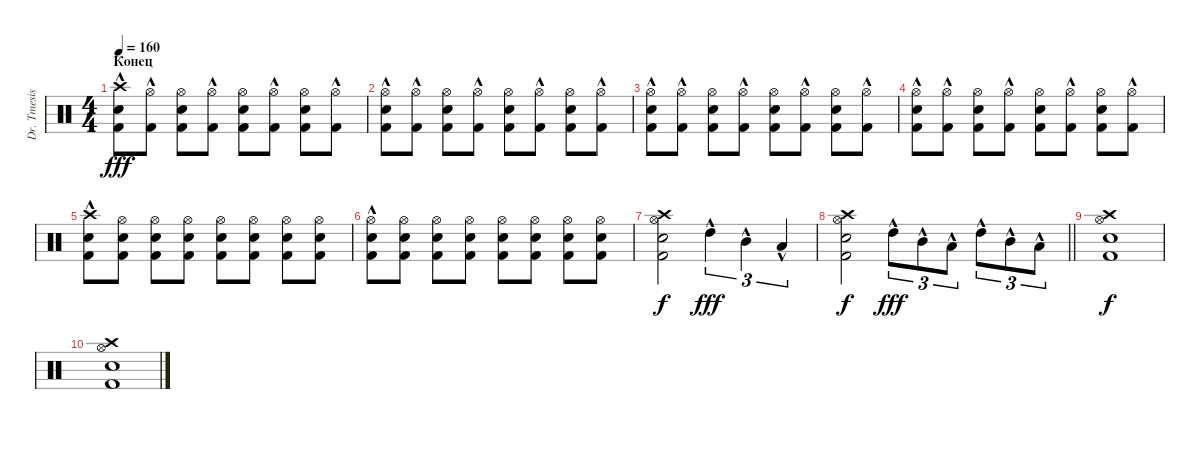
\track ("Dr. Tmesis" "Dr. Tmesis") {instrument percussion}
\staff {score}
\articulation defaults
\ts (4 4)
\section ("" "Конец")
\tempo 160
\clef neutral
\ks c
("Kick (hit) 2"{hac} "Snare (hit) 2" "Crash high (hit)").8{dy fff} ("Kick (hit) 2"{hac} "Hi-Hat (open)").8 ("Snare (hit) 2" "Hi-Hat (open)" "Kick (hit) 2").8 ("Kick (hit) 2"{hac} "Hi-Hat (open)").8 ("Snare (hit) 2" "Hi-Hat (open)" "Kick (hit) 2").8 ("Kick (hit) 2"{hac} "Hi-Hat (open)").8 ("Snare (hit) 2" "Hi-Hat (open)" "Kick (hit) 2").8 ("Kick (hit) 2"{hac} "Hi-Hat (open)").8 |
("Kick (hit) 2"{hac} "Snare (hit) 2" "Hi-Hat (open)").8 ("Kick (hit) 2"{hac} "Hi-Hat (open)").8 ("Snare (hit) 2" "Hi-Hat (open)" "Kick (hit) 2").8 ("Kick (hit) 2"{hac} "Hi-Hat (open)").8 ("Snare (hit) 2" "Hi-Hat (open)" "Kick (hit) 2").8 ("Kick (hit) 2"{hac} "Hi-Hat (open)").8 ("Snare (hit) 2" "Hi-Hat (open)" "Kick (hit) 2").8 ("Kick (hit) 2"{hac} "Hi-Hat (open)").8 |
("Kick (hit) 2"{hac} "Snare (hit) 2" "Hi-Hat (open)").8 ("Kick (hit) 2"{hac} "Hi-Hat (open)").8 ("Snare (hit) 2" "Hi-Hat (open)" "Kick (hit) 2").8 ("Kick (hit) 2"{hac} "Hi-Hat (open)").8 ("Snare (hit) 2" "Hi-Hat (open)" "Kick (hit) 2").8 ("Kick (hit) 2"{hac} "Hi-Hat (open)").8 ("Snare (hit) 2" "Hi-Hat (open)" "Kick (hit) 2").8 ("Kick (hit) 2"{hac} "Hi-Hat (open)").8 |
("Kick (hit) 2"{hac} "Snare (hit) 2" "Hi-Hat (open)").8 ("Kick (hit) 2"{hac} "Hi-Hat (open)").8 ("Snare (hit) 2" "Hi-Hat (open)" "Kick (hit) 2").8 ("Kick (hit) 2"{hac} "Hi-Hat (open)").8 ("Snare (hit) 2" "Hi-Hat (open)" "Kick (hit) 2").8 ("Kick (hit) 2"{hac} "Hi-Hat (open)").8 ("Snare (hit) 2" "Hi-Hat (open)" "Kick (hit) 2").8 ("Kick (hit) 2"{hac} "Hi-Hat (open)").8 |
("Kick (hit) 2"{hac} "Snare (hit) 2" "Crash high (hit)").8 ("Snare (hit) 2" "Hi-Hat (open)" "Kick (hit) 2").8 ("Snare (hit) 2" "Hi-Hat (open)" "Kick (hit) 2").8 ("Snare (hit) 2" "Hi-Hat (open)" "Kick (hit) 2").8 ("Snare (hit) 2" "Hi-Hat (open)" "Kick (hit) 2").8 ("Snare (hit) 2" "Hi-Hat (open)" "Kick (hit) 2").8 ("Snare (hit) 2" "Hi-Hat (open)" "Kick (hit) 2").8 ("Snare (hit) 2" "Hi-Hat (open)" "Kick (hit) 2").8 |
("Kick (hit) 2"{hac} "Snare (hit) 2" "Hi-Hat (open)").8 ("Snare (hit) 2" "Hi-Hat (open)" "Kick (hit) 2").8 ("Snare (hit) 2" "Hi-Hat (open)" "Kick (hit) 2").8 ("Snare (hit) 2" "Hi-Hat (open)" "Kick (hit) 2").8 ("Snare (hit) 2" "Hi-Hat (open)" "Kick (hit) 2").8 ("Snare (hit) 2" "Hi-Hat (open)" "Kick (hit) 2").8 ("Snare (hit) 2" "Hi-Hat (open)" "Kick (hit) 2").8 ("Snare (hit) 2" "Hi-Hat (open)" "Kick (hit) 2").8 |
("Kick (hit) 2" "Snare (hit) 2" "Crash high (hit)" "Hi-Hat (open)").2{dy f} "High Tom (hit)"{hac}.4{tu (3 2) dy fff} "Mid Tom (hit)"{hac}.4{tu (3 2)} "Low Tom (hit)"{hac}.4{tu (3 2)} |
\barLineRight lightlight
("Kick (hit) 2" "Snare (hit) 2" "Crash high (hit)" "Hi-Hat (open)").2{dy f} "High Tom (hit)"{hac}.8{tu (3 2) dy fff} "Mid Tom (hit)"{hac}.8{tu (3 2)} "Low Tom (hit)"{hac}.8{tu (3 2)} "High Tom (hit)"{hac}.8{tu (3 2)} "Mid Tom (hit)"{hac}.8{tu (3 2)} "Low Tom (hit)"{hac}.8{tu (3 2)} |
("Kick (hit) 2" "Snare (hit) 2" "Crash high (hit)" "Hi-Hat (open)").1{dy f volume 0} |
("Kick (hit) 2" "Snare (hit) 2" "Crash high (hit)" "Hi-Hat (open)").1
